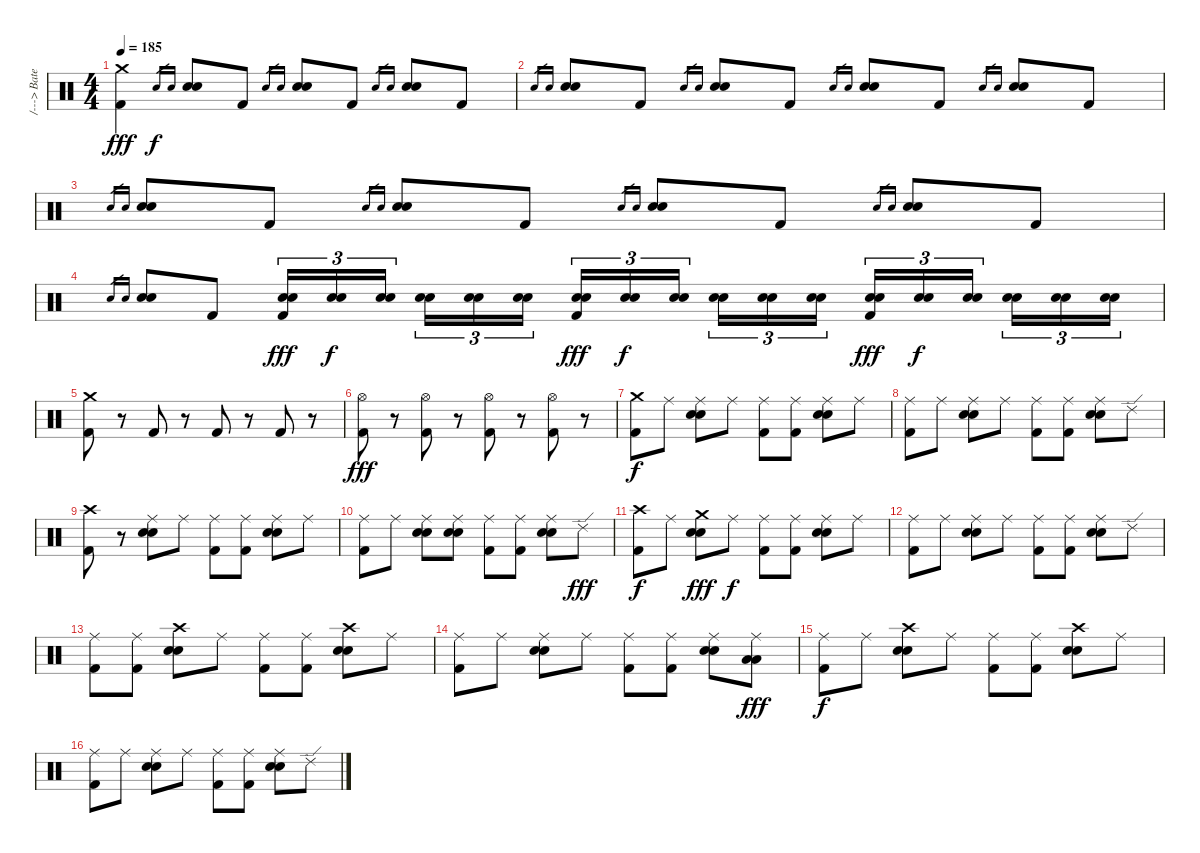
\track ("/---> Bateria <----/" "/---> Bate") {instrument percussion}
\staff {score}
\articulation defaults
\ts (4 4)
\tempo 185
\clef neutral
\ks c
("Crash medium (hit)" "Kick (hit) 2").4{dy fff} "Snare (hit) 2".16{gr dy f} "Electric Snare (hit)".16{gr} ("Snare (hit) 2" "Electric Snare (hit)").8 "Kick (hit) 2".8 "Snare (hit) 2".16{gr} "Electric Snare (hit)".16{gr} ("Snare (hit) 2" "Electric Snare (hit)").8 "Kick (hit) 2".8 "Snare (hit) 2".16{gr} "Electric Snare (hit)".16{gr} ("Snare (hit) 2" "Electric Snare (hit)").8 "Kick (hit) 2".8 |
"Snare (hit) 2".16{gr} "Electric Snare (hit)".16{gr} ("Snare (hit) 2" "Electric Snare (hit)").8 "Kick (hit) 2".8 "Snare (hit) 2".16{gr} "Electric Snare (hit)".16{gr} ("Snare (hit) 2" "Electric Snare (hit)").8 "Kick (hit) 2".8 "Snare (hit) 2".16{gr} "Electric Snare (hit)".16{gr} ("Snare (hit) 2" "Electric Snare (hit)").8 "Kick (hit) 2".8 "Snare (hit) 2".16{gr} "Electric Snare (hit)".16{gr} ("Snare (hit) 2" "Electric Snare (hit)").8 "Kick (hit) 2".8 |
"Snare (hit) 2".16{gr} "Electric Snare (hit)".16{gr} ("Snare (hit) 2" "Electric Snare (hit)").8 "Kick (hit) 2".8 "Snare (hit) 2".16{gr} "Electric Snare (hit)".16{gr} ("Snare (hit) 2" "Electric Snare (hit)").8 "Kick (hit) 2".8 "Snare (hit) 2".16{gr} "Electric Snare (hit)".16{gr} ("Snare (hit) 2" "Electric Snare (hit)").8 "Kick (hit) 2".8 "Snare (hit) 2".16{gr} "Electric Snare (hit)".16{gr} ("Snare (hit) 2" "Electric Snare (hit)").8 "Kick (hit) 2".8 |
"Snare (hit) 2".16{gr} "Electric Snare (hit)".16{gr} ("Snare (hit) 2" "Electric Snare (hit)").8 "Kick (hit) 2".8 ("Snare (hit) 2" "Electric Snare (hit)" "Kick (hit) 2").16{tu (3 2) dy fff} ("Snare (hit) 2" "Electric Snare (hit)").16{tu (3 2) dy f} ("Snare (hit) 2" "Electric Snare (hit)").16{tu (3 2)} ("Snare (hit) 2" "Electric Snare (hit)").16{tu (3 2)} ("Snare (hit) 2" "Electric Snare (hit)").16{tu (3 2)} ("Snare (hit) 2" "Electric Snare (hit)").16{tu (3 2)} ("Snare (hit) 2" "Electric Snare (hit)" "Kick (hit) 2").16{tu (3 2) dy fff} ("Snare (hit) 2" "Electric Snare (hit)").16{tu (3 2) dy f} ("Snare (hit) 2" "Electric Snare (hit)").16{tu (3 2)} ("Snare (hit) 2" "Electric Snare (hit)").16{tu (3 2)} ("Snare (hit) 2" "Electric Snare (hit)").16{tu (3 2)} ("Snare (hit) 2" "Electric Snare (hit)").16{tu (3 2)} ("Snare (hit) 2" "Electric Snare (hit)" "Kick (hit) 2").16{tu (3 2) dy fff} ("Snare (hit) 2" "Electric Snare (hit)").16{tu (3 2) dy f} ("Snare (hit) 2" "Electric Snare (hit)").16{tu (3 2)} ("Snare (hit) 2" "Electric Snare (hit)").16{tu (3 2)} ("Snare (hit) 2" "Electric Snare (hit)").16{tu (3 2)} ("Snare (hit) 2" "Electric Snare (hit)").16{tu (3 2)} |
("Crash medium (hit)" "Kick (hit) 2").8 r.8 "Kick (hit) 2".8 r.8 "Kick (hit) 2".8 r.8 "Kick (hit) 2".8 r.8 |
("Hi-Hat (open)" "Kick (hit) 2").8{dy fff} r.8 ("Hi-Hat (open)" "Kick (hit) 2").8 r.8 ("Hi-Hat (open)" "Kick (hit) 2").8 r.8 ("Hi-Hat (open)" "Kick (hit) 2").8 r.8 |
("Crash medium (hit)" "Kick (hit) 2").8{dy f} "Ride (middle)".8 ("Ride (middle)" "Snare (hit) 2" "Electric Snare (hit)").8 "Ride (middle)".8 ("Ride (middle)" "Kick (hit) 2").8 ("Ride (middle)" "Kick (hit) 2").8 ("Ride (middle)" "Snare (hit) 2" "Electric Snare (hit)").8 "Ride (middle)".8 |
("Ride (middle)" "Kick (hit) 2").8 "Ride (middle)".8 ("Ride (middle)" "Snare (hit) 2" "Electric Snare (hit)").8 "Ride (middle)".8 ("Ride (middle)" "Kick (hit) 2").8 ("Ride (middle)" "Kick (hit) 2").8 ("Ride (middle)" "Snare (hit) 2" "Electric Snare (hit)").8 "Ride (edge) 2".8 |
("Crash high (hit)" "Kick (hit) 2").8 r.8 ("Ride (middle)" "Snare (hit) 2" "Electric Snare (hit)").8 "Ride (middle)".8 ("Ride (middle)" "Kick (hit) 2").8 ("Ride (middle)" "Kick (hit) 2").8 ("Ride (middle)" "Snare (hit) 2" "Electric Snare (hit)").8 "Ride (middle)".8 |
("Ride (middle)" "Kick (hit) 2").8 "Ride (middle)".8 ("Ride (middle)" "Snare (hit) 2" "Electric Snare (hit)").8 ("Ride (middle)" "Snare (hit) 2" "Electric Snare (hit)").8 ("Ride (middle)" "Kick (hit) 2").8 ("Ride (middle)" "Kick (hit) 2").8 ("Ride (middle)" "Snare (hit) 2" "Electric Snare (hit)").8 "Ride (edge) 2".8{dy fff} |
("Crash high (hit)" "Kick (hit) 2").8{dy f} "Ride (middle)".8 ("Crash medium (hit)" "Snare (hit) 2" "Electric Snare (hit)").8{dy fff} "Ride (middle)".8{dy f} ("Ride (middle)" "Kick (hit) 2").8 ("Ride (middle)" "Kick (hit) 2").8 ("Ride (middle)" "Snare (hit) 2" "Electric Snare (hit)").8 "Ride (middle)".8 |
("Ride (middle)" "Kick (hit) 2").8 "Ride (middle)".8 ("Ride (middle)" "Snare (hit) 2" "Electric Snare (hit)").8 "Ride (middle)".8 ("Ride (middle)" "Kick (hit) 2").8 ("Ride (middle)" "Kick (hit) 2").8 ("Ride (middle)" "Snare (hit) 2" "Electric Snare (hit)").8 "Ride (edge) 2".8 |
("Ride (middle)" "Kick (hit) 2").8 ("Ride (middle)" "Kick (hit) 2").8 ("Crash high (hit)" "Snare (hit) 2" "Electric Snare (hit)").8 "Ride (middle)".8 ("Ride (middle)" "Kick (hit) 2").8 ("Ride (middle)" "Kick (hit) 2").8 ("Crash high (hit)" "Snare (hit) 2" "Electric Snare (hit)").8 "Ride (middle)".8 |
("Ride (middle)" "Kick (hit) 2").8 "Ride (middle)".8 ("Ride (middle)" "Snare (hit) 2" "Electric Snare (hit)").8 "Ride (middle)".8 ("Ride (middle)" "Kick (hit) 2").8 ("Ride (middle)" "Kick (hit) 2").8 ("Ride (middle)" "Snare (hit) 2" "Electric Snare (hit)").8 ("Ride (middle)" "Low Tom (hit)" "Low Tom (hit)").8{dy fff} |
("Ride (middle)" "Kick (hit) 2").8{dy f} "Ride (middle)".8 ("Crash high (hit)" "Snare (hit) 2" "Electric Snare (hit)").8 "Ride (middle)".8 ("Ride (middle)" "Kick (hit) 2").8 ("Ride (middle)" "Kick (hit) 2").8 ("Crash high (hit)" "Snare (hit) 2" "Electric Snare (hit)").8 "Ride (middle)".8 |
("Ride (middle)" "Kick (hit) 2").8 "Ride (middle)".8 ("Ride (middle)" "Snare (hit) 2" "Electric Snare (hit)").8 "Ride (middle)".8 ("Ride (middle)" "Kick (hit) 2").8 ("Ride (middle)" "Kick (hit) 2").8 ("Ride (middle)" "Snare (hit) 2" "Electric Snare (hit)").8 "Ride (edge) 2".8
